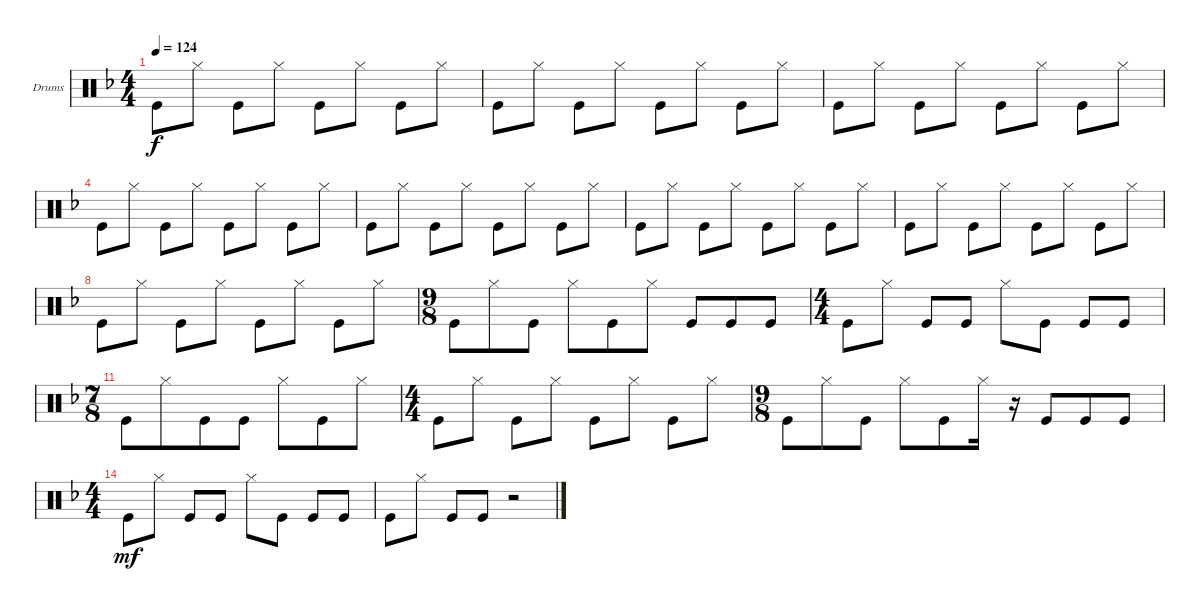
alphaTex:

\bracketExtendMode nobrackets
\firstSystemTrackNameOrientation horizontal
\otherSystemsTrackNameOrientation horizontal
\defaultBarNumberDisplay FirstOfSystem
\track ("Drumkit" "Drums") {instrument percussion}
\staff {score}
\articulation defaults
\ts (4 4)
\tempo 124
\clef neutral
\ks f "Kick (hit)".8{dy f} "Hi-Hat (closed)".8 "Kick (hit)".8 "Hi-Hat (closed)".8 "Kick (hit)".8 "Hi-Hat (closed)".8 "Kick (hit)".8 "Hi-Hat (closed)".8
|
"Kick (hit)".8 "Hi-Hat (closed)".8 "Kick (hit)".8 "Hi-Hat (closed)".8 "Kick (hit)".8 "Hi-Hat (closed)".8 "Kick (hit)".8 "Hi-Hat (closed)".8 |
"Kick (hit)".8 "Hi-Hat (closed)".8 "Kick (hit)".8 "Hi-Hat (closed)".8 "Kick (hit)".8 "Hi-Hat (closed)".8 "Kick (hit)".8 "Hi-Hat (closed)".8 |
"Kick (hit)".8 "Hi-Hat (closed)".8 "Kick (hit)".8 "Hi-Hat (closed)".8 "Kick (hit)".8 "Hi-Hat (closed)".8 "Kick (hit)".8 "Hi-Hat (closed)".8 |
"Kick (hit)".8 "Hi-Hat (closed)".8 "Kick (hit)".8 "Hi-Hat (closed)".8 "Kick (hit)".8 "Hi-Hat (closed)".8 "Kick (hit)".8 "Hi-Hat (closed)".8 |
"Kick (hit)".8 "Hi-Hat (closed)".8 "Kick (hit)".8 "Hi-Hat (closed)".8 "Kick (hit)".8 "Hi-Hat (closed)".8 "Kick (hit)".8 "Hi-Hat (closed)".8 |
"Kick (hit)".8 "Hi-Hat (closed)".8 "Kick (hit)".8 "Hi-Hat (closed)".8 "Kick (hit)".8 "Hi-Hat (closed)".8 "Kick (hit)".8 "Hi-Hat (closed)".8 |
"Kick (hit)".8 "Hi-Hat (closed)".8 "Kick (hit)".8 "Hi-Hat (closed)".8 "Kick (hit)".8 "Hi-Hat (closed)".8 "Kick (hit)".8 "Hi-Hat (closed)".8 |
\ts (9 8)
"Kick (hit)".8 "Hi-Hat (closed)".8 "Kick (hit)".8 "Hi-Hat (closed)".8 "Kick (hit)".8 "Hi-Hat (closed)".8 "Kick (hit)".8 "Kick (hit)".8 "Kick (hit)".8 |
\ts (4 4)
"Kick (hit)".8 "Hi-Hat (closed)".8 "Kick (hit)".8 "Kick (hit)".8 "Hi-Hat (closed)".8 "Kick (hit)".8 "Kick (hit)".8 "Kick (hit)".8 |
\ts (7 8)
"Kick (hit)".8 "Hi-Hat (closed)".8 "Kick (hit)".8 "Kick (hit)".8 "Hi-Hat (closed)".8 "Kick (hit)".8 "Hi-Hat (closed)".8 |
\ts (4 4)
"Kick (hit)".8 "Hi-Hat (closed)".8 "Kick (hit)".8 "Hi-Hat (closed)".8 "Kick (hit)".8 "Hi-Hat (closed)".8 "Kick (hit)".8 "Hi-Hat (closed)".8 |
\ts (9 8)
"Kick (hit)".8 "Hi-Hat (closed)".8 "Kick (hit)".8 "Hi-Hat (closed)".8 "Kick (hit)".8 "Hi-Hat (closed)".16 r.16 "Kick (hit)".8 "Kick (hit)".8 "Kick (hit)".8 |
\ts (4 4)
"Kick (hit)".8{dy mf} "Hi-Hat (closed)".8 "Kick (hit)".8 "Kick (hit)".8 "Hi-Hat (closed)".8 "Kick (hit)".8 "Kick (hit)".8 "Kick (hit)".8 |
"Kick (hit)".8 "Hi-Hat (closed)".8 "Kick (hit)".8 "Kick (hit)".8 r.2
